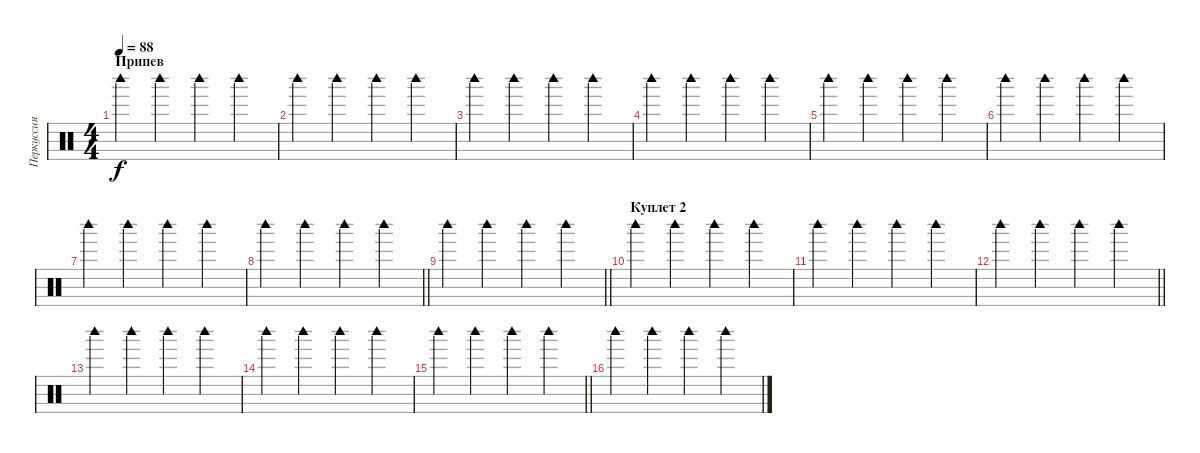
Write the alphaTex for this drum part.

\track ("Перкуссия 2" "Перкуссия ") {instrument percussion}
\staff {score}
\articulation defaults
\ts (4 4)
\section ("" "Припев")
\tempo 88
\clef neutral
\ks c "Woodblock high (hit)".4{dy f} "Woodblock high (hit)".4 "Woodblock high (hit)".4 "Woodblock high (hit)".4
|
"Woodblock high (hit)".4 "Woodblock high (hit)".4 "Woodblock high (hit)".4 "Woodblock high (hit)".4 |
"Woodblock high (hit)".4 "Woodblock high (hit)".4 "Woodblock high (hit)".4 "Woodblock high (hit)".4 |
"Woodblock high (hit)".4 "Woodblock high (hit)".4 "Woodblock high (hit)".4 "Woodblock high (hit)".4 |
"Woodblock high (hit)".4 "Woodblock high (hit)".4 "Woodblock high (hit)".4 "Woodblock high (hit)".4 |
"Woodblock high (hit)".4 "Woodblock high (hit)".4 "Woodblock high (hit)".4 "Woodblock high (hit)".4 |
"Woodblock high (hit)".4 "Woodblock high (hit)".4 "Woodblock high (hit)".4 "Woodblock high (hit)".4 |
\barLineRight lightlight "Woodblock high (hit)".4 "Woodblock high (hit)".4 "Woodblock high (hit)".4 "Woodblock high (hit)".4
|
\barLineRight lightlight "Woodblock high (hit)".4 "Woodblock high (hit)".4 "Woodblock high (hit)".4 "Woodblock high (hit)".4
|
\section ("" "Куплет 2")
"Woodblock high (hit)".4 "Woodblock high (hit)".4 "Woodblock high (hit)".4 "Woodblock high (hit)".4 |
"Woodblock high (hit)".4 "Woodblock high (hit)".4 "Woodblock high (hit)".4 "Woodblock high (hit)".4 |
\barLineRight lightlight "Woodblock high (hit)".4 "Woodblock high (hit)".4 "Woodblock high (hit)".4 "Woodblock high (hit)".4
|
"Woodblock high (hit)".4 "Woodblock high (hit)".4 "Woodblock high (hit)".4 "Woodblock high (hit)".4 |
"Woodblock high (hit)".4 "Woodblock high (hit)".4 "Woodblock high (hit)".4 "Woodblock high (hit)".4 |
\barLineRight lightlight "Woodblock high (hit)".4 "Woodblock high (hit)".4 "Woodblock high (hit)".4 "Woodblock high (hit)".4
|
"Woodblock high (hit)".4 "Woodblock high (hit)".4 "Woodblock high (hit)".4 "Woodblock high (hit)".4
